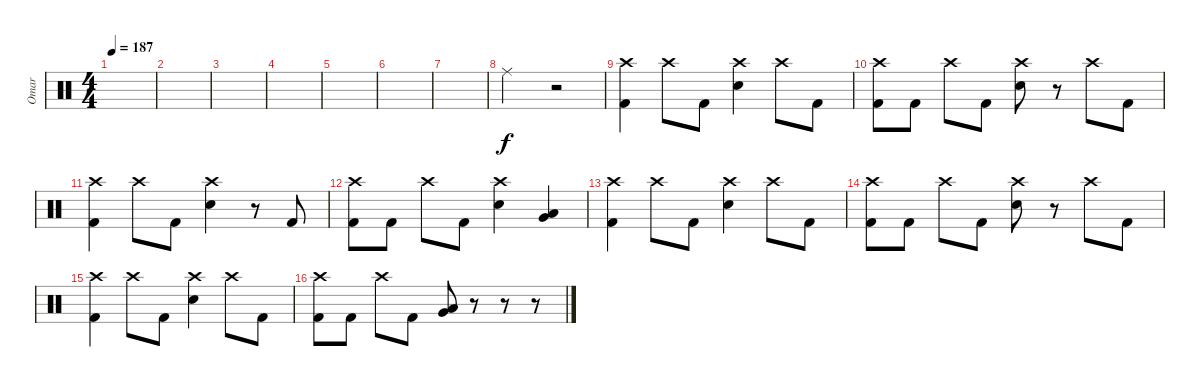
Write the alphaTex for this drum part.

\track ("Omar" "Omar") {instrument percussion}
\staff {score}
\articulation defaults
\ts (4 4)
\tempo 187
\clef neutral
\ks c
|
|
|
|
|
|
|
"Ride (middle)".2 r.2 |
("Crash high (hit)" "Kick (hit) 2").4 "Crash high (hit)".8 "Kick (hit) 2".8 ("Crash high (hit)" "Snare (hit) 2").4 "Crash high (hit)".8 "Kick (hit) 2".8 |
("Crash high (hit)" "Kick (hit) 2").8 "Kick (hit) 2".8 "Crash high (hit)".8 "Kick (hit) 2".8 ("Crash high (hit)" "Snare (hit) 2").8 r.8 "Crash high (hit)".8 "Kick (hit) 2".8 |
("Crash high (hit)" "Kick (hit) 2").4 "Crash high (hit)".8 "Kick (hit) 2".8 ("Crash high (hit)" "Snare (hit) 2").4 r.8 "Kick (hit) 2".8 |
("Crash high (hit)" "Kick (hit) 2").8 "Kick (hit) 2".8 "Crash high (hit)".8 "Kick (hit) 2".8 ("Crash high (hit)" "Snare (hit) 2").4 ("Low Tom (hit)" "Very Low Tom (hit)").4 |
("Crash high (hit)" "Kick (hit) 2").4 "Crash high (hit)".8 "Kick (hit) 2".8 ("Crash high (hit)" "Snare (hit) 2").4 "Crash high (hit)".8 "Kick (hit) 2".8 |
("Crash high (hit)" "Kick (hit) 2").8 "Kick (hit) 2".8 "Crash high (hit)".8 "Kick (hit) 2".8 ("Crash high (hit)" "Snare (hit) 2").8 r.8 "Crash high (hit)".8 "Kick (hit) 2".8 |
("Crash high (hit)" "Kick (hit) 2").4 "Crash high (hit)".8 "Kick (hit) 2".8 ("Crash high (hit)" "Snare (hit) 2").4 "Crash high (hit)".8 "Kick (hit) 2".8 |
("Crash high (hit)" "Kick (hit) 2").8 "Kick (hit) 2".8 "Crash high (hit)".8 "Kick (hit) 2".8 ("Low Tom (hit)" "Very Low Tom (hit)").8 r.8 r.8 r.8
